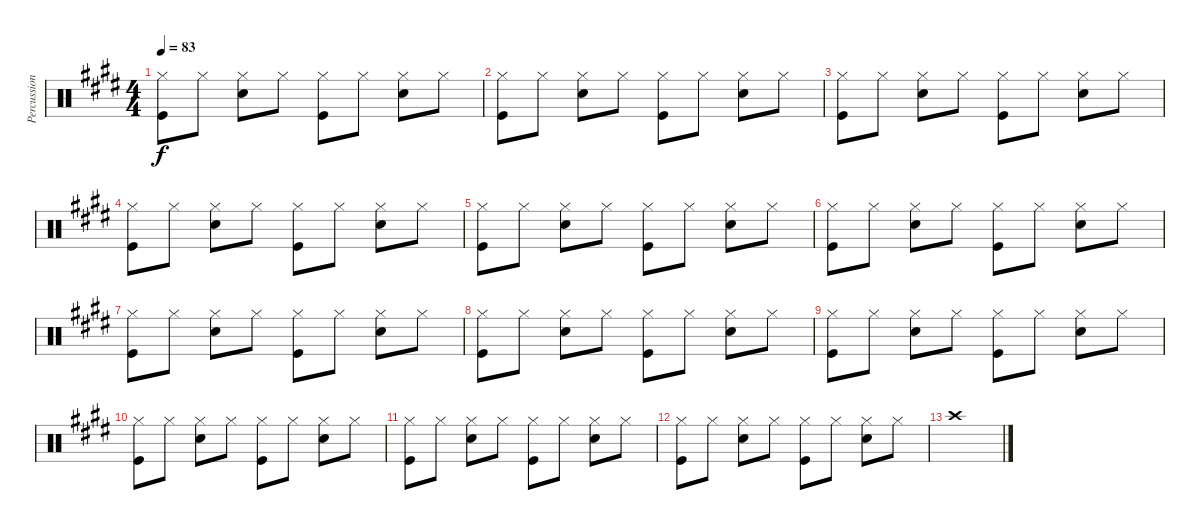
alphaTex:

\track ("Percussion" "Percussion") {instrument percussion}
\staff {score}
\articulation defaults
\ts (4 4)
\tempo 83
\clef neutral
\ks e
("Kick (hit)" "Hi-Hat (closed)").8{dy f} "Hi-Hat (closed)".8 ("Hi-Hat (closed)" "Snare (hit) 2").8 "Hi-Hat (closed)".8 ("Hi-Hat (closed)" "Kick (hit)").8 "Hi-Hat (closed)".8 ("Hi-Hat (closed)" "Snare (hit) 2").8 "Hi-Hat (closed)".8 |
("Kick (hit)" "Hi-Hat (closed)").8 "Hi-Hat (closed)".8 ("Hi-Hat (closed)" "Snare (hit) 2").8 "Hi-Hat (closed)".8 ("Hi-Hat (closed)" "Kick (hit)").8 "Hi-Hat (closed)".8 ("Hi-Hat (closed)" "Snare (hit) 2").8 "Hi-Hat (closed)".8 |
("Kick (hit)" "Hi-Hat (closed)").8 "Hi-Hat (closed)".8 ("Hi-Hat (closed)" "Snare (hit) 2").8 "Hi-Hat (closed)".8 ("Hi-Hat (closed)" "Kick (hit)").8 "Hi-Hat (closed)".8 ("Hi-Hat (closed)" "Snare (hit) 2").8 "Hi-Hat (closed)".8 |
("Kick (hit)" "Hi-Hat (closed)").8 "Hi-Hat (closed)".8 ("Hi-Hat (closed)" "Snare (hit) 2").8 "Hi-Hat (closed)".8 ("Hi-Hat (closed)" "Kick (hit)").8 "Hi-Hat (closed)".8 ("Hi-Hat (closed)" "Snare (hit) 2").8 "Hi-Hat (closed)".8 |
("Kick (hit)" "Hi-Hat (closed)").8 "Hi-Hat (closed)".8 ("Hi-Hat (closed)" "Snare (hit) 2").8 "Hi-Hat (closed)".8 ("Hi-Hat (closed)" "Kick (hit)").8 "Hi-Hat (closed)".8 ("Hi-Hat (closed)" "Snare (hit) 2").8 "Hi-Hat (closed)".8 |
("Kick (hit)" "Hi-Hat (closed)").8 "Hi-Hat (closed)".8 ("Hi-Hat (closed)" "Snare (hit) 2").8 "Hi-Hat (closed)".8 ("Hi-Hat (closed)" "Kick (hit)").8 "Hi-Hat (closed)".8 ("Hi-Hat (closed)" "Snare (hit) 2").8 "Hi-Hat (closed)".8 |
("Kick (hit)" "Hi-Hat (closed)").8 "Hi-Hat (closed)".8 ("Hi-Hat (closed)" "Snare (hit) 2").8 "Hi-Hat (closed)".8 ("Hi-Hat (closed)" "Kick (hit)").8 "Hi-Hat (closed)".8 ("Hi-Hat (closed)" "Snare (hit) 2").8 "Hi-Hat (closed)".8 |
("Kick (hit)" "Hi-Hat (closed)").8 "Hi-Hat (closed)".8 ("Hi-Hat (closed)" "Snare (hit) 2").8 "Hi-Hat (closed)".8 ("Hi-Hat (closed)" "Kick (hit)").8 "Hi-Hat (closed)".8 ("Hi-Hat (closed)" "Snare (hit) 2").8 "Hi-Hat (closed)".8 |
("Kick (hit)" "Hi-Hat (closed)").8 "Hi-Hat (closed)".8 ("Hi-Hat (closed)" "Snare (hit) 2").8 "Hi-Hat (closed)".8 ("Hi-Hat (closed)" "Kick (hit)").8 "Hi-Hat (closed)".8 ("Hi-Hat (closed)" "Snare (hit) 2").8 "Hi-Hat (closed)".8 |
("Kick (hit)" "Hi-Hat (closed)").8 "Hi-Hat (closed)".8 ("Hi-Hat (closed)" "Snare (hit) 2").8 "Hi-Hat (closed)".8 ("Hi-Hat (closed)" "Kick (hit)").8 "Hi-Hat (closed)".8 ("Hi-Hat (closed)" "Snare (hit) 2").8 "Hi-Hat (closed)".8 |
("Kick (hit)" "Hi-Hat (closed)").8 "Hi-Hat (closed)".8 ("Hi-Hat (closed)" "Snare (hit) 2").8 "Hi-Hat (closed)".8 ("Hi-Hat (closed)" "Kick (hit)").8 "Hi-Hat (closed)".8 ("Hi-Hat (closed)" "Snare (hit) 2").8 "Hi-Hat (closed)".8 |
("Kick (hit)" "Hi-Hat (closed)").8 "Hi-Hat (closed)".8 ("Hi-Hat (closed)" "Snare (hit) 2").8 "Hi-Hat (closed)".8 ("Hi-Hat (closed)" "Kick (hit)").8 "Hi-Hat (closed)".8 ("Hi-Hat (closed)" "Snare (hit) 2").8 "Hi-Hat (closed)".8 |
"Crash high (hit)".1
